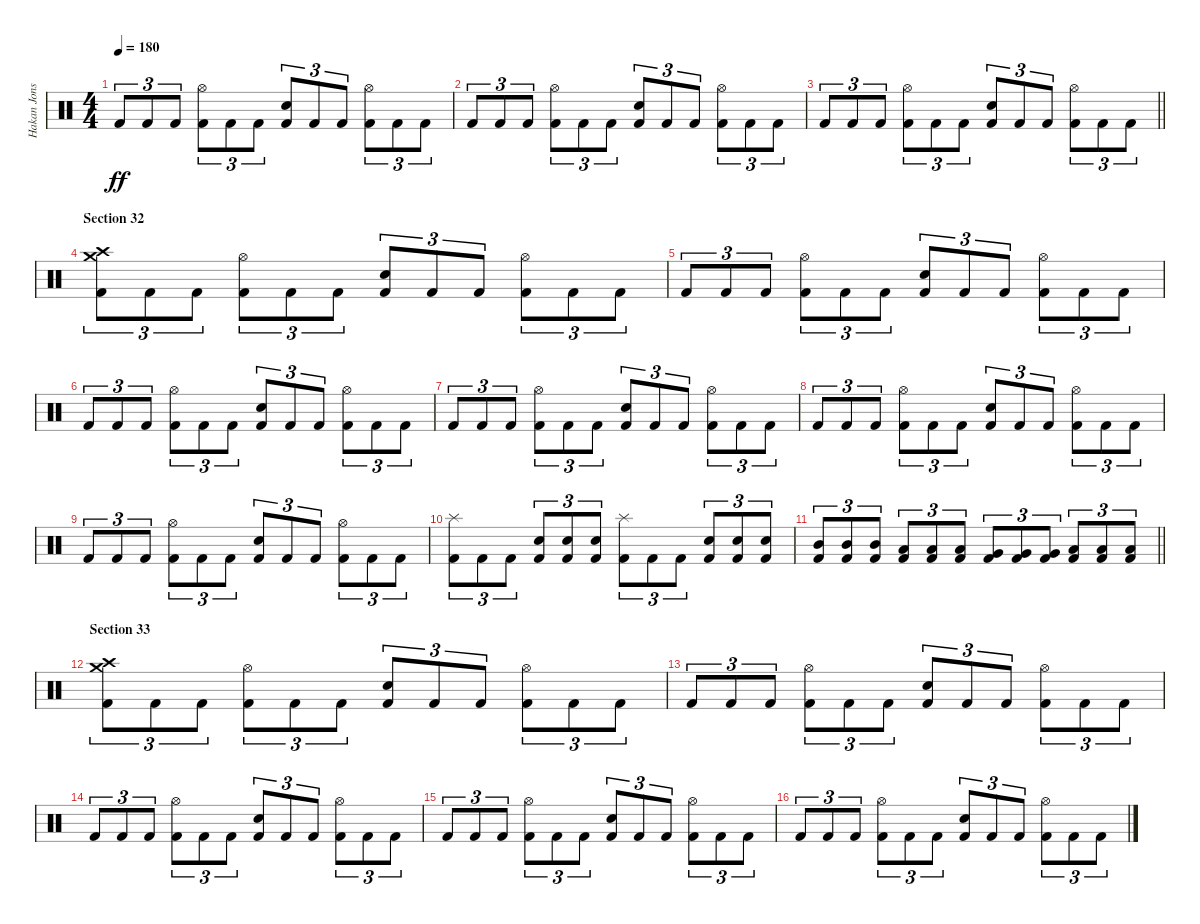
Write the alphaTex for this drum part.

\track ("Hakan Jonsson" "Hakan Jons") {instrument percussion}
\staff {score}
\articulation defaults
\ts (4 4)
\tempo 180
\clef neutral
\ks c "Kick (hit) 2".8{tu (3 2) dy ff} "Kick (hit) 2".8{tu (3 2)} "Kick (hit) 2".8{tu (3 2)}
("Hi-Hat (open)" "Kick (hit) 2").8{tu (3 2)} "Kick (hit) 2".8{tu (3 2)} "Kick (hit) 2".8{tu (3 2)} ("Electric Snare (hit)" "Kick (hit) 2").8{tu (3 2)} "Kick (hit) 2".8{tu (3 2)} "Kick (hit) 2".8{tu (3 2)} ("Hi-Hat (open)" "Kick (hit) 2").8{tu (3 2)} "Kick (hit) 2".8{tu (3 2)} "Kick (hit) 2".8{tu (3 2)} |
"Kick (hit) 2".8{tu (3 2)} "Kick (hit) 2".8{tu (3 2)} "Kick (hit) 2".8{tu (3 2)} ("Hi-Hat (open)" "Kick (hit) 2").8{tu (3 2)} "Kick (hit) 2".8{tu (3 2)} "Kick (hit) 2".8{tu (3 2)} ("Electric Snare (hit)" "Kick (hit) 2").8{tu (3 2)} "Kick (hit) 2".8{tu (3 2)} "Kick (hit) 2".8{tu (3 2)} ("Hi-Hat (open)" "Kick (hit) 2").8{tu (3 2)} "Kick (hit) 2".8{tu (3 2)} "Kick (hit) 2".8{tu (3 2)} |
\barLineRight lightlight "Kick (hit) 2".8{tu (3 2)} "Kick (hit) 2".8{tu (3 2)} "Kick (hit) 2".8{tu (3 2)}
("Hi-Hat (open)" "Kick (hit) 2").8{tu (3 2)} "Kick (hit) 2".8{tu (3 2)} "Kick (hit) 2".8{tu (3 2)} ("Electric Snare (hit)" "Kick (hit) 2").8{tu (3 2)} "Kick (hit) 2".8{tu (3 2)} "Kick (hit) 2".8{tu (3 2)} ("Hi-Hat (open)" "Kick (hit) 2").8{tu (3 2)} "Kick (hit) 2".8{tu (3 2)} "Kick (hit) 2".8{tu (3 2)} |
\section ("" "Section 32")
("Crash high (hit)" "Crash medium (hit)" "Kick (hit) 2").8{tu (3 2)} "Kick (hit) 2".8{tu (3 2)} "Kick (hit) 2".8{tu (3 2)} ("Hi-Hat (open)" "Kick (hit) 2").8{tu (3 2)} "Kick (hit) 2".8{tu (3 2)} "Kick (hit) 2".8{tu (3 2)} ("Electric Snare (hit)" "Kick (hit) 2").8{tu (3 2)} "Kick (hit) 2".8{tu (3 2)} "Kick (hit) 2".8{tu (3 2)} ("Hi-Hat (open)" "Kick (hit) 2").8{tu (3 2)} "Kick (hit) 2".8{tu (3 2)} "Kick (hit) 2".8{tu (3 2)} |
"Kick (hit) 2".8{tu (3 2)} "Kick (hit) 2".8{tu (3 2)} "Kick (hit) 2".8{tu (3 2)} ("Hi-Hat (open)" "Kick (hit) 2").8{tu (3 2)} "Kick (hit) 2".8{tu (3 2)} "Kick (hit) 2".8{tu (3 2)} ("Electric Snare (hit)" "Kick (hit) 2").8{tu (3 2)} "Kick (hit) 2".8{tu (3 2)} "Kick (hit) 2".8{tu (3 2)} ("Hi-Hat (open)" "Kick (hit) 2").8{tu (3 2)} "Kick (hit) 2".8{tu (3 2)} "Kick (hit) 2".8{tu (3 2)} |
"Kick (hit) 2".8{tu (3 2)} "Kick (hit) 2".8{tu (3 2)} "Kick (hit) 2".8{tu (3 2)} ("Hi-Hat (open)" "Kick (hit) 2").8{tu (3 2)} "Kick (hit) 2".8{tu (3 2)} "Kick (hit) 2".8{tu (3 2)} ("Electric Snare (hit)" "Kick (hit) 2").8{tu (3 2)} "Kick (hit) 2".8{tu (3 2)} "Kick (hit) 2".8{tu (3 2)} ("Hi-Hat (open)" "Kick (hit) 2").8{tu (3 2)} "Kick (hit) 2".8{tu (3 2)} "Kick (hit) 2".8{tu (3 2)} |
"Kick (hit) 2".8{tu (3 2)} "Kick (hit) 2".8{tu (3 2)} "Kick (hit) 2".8{tu (3 2)} ("Hi-Hat (open)" "Kick (hit) 2").8{tu (3 2)} "Kick (hit) 2".8{tu (3 2)} "Kick (hit) 2".8{tu (3 2)} ("Electric Snare (hit)" "Kick (hit) 2").8{tu (3 2)} "Kick (hit) 2".8{tu (3 2)} "Kick (hit) 2".8{tu (3 2)} ("Hi-Hat (open)" "Kick (hit) 2").8{tu (3 2)} "Kick (hit) 2".8{tu (3 2)} "Kick (hit) 2".8{tu (3 2)} |
"Kick (hit) 2".8{tu (3 2)} "Kick (hit) 2".8{tu (3 2)} "Kick (hit) 2".8{tu (3 2)} ("Hi-Hat (open)" "Kick (hit) 2").8{tu (3 2)} "Kick (hit) 2".8{tu (3 2)} "Kick (hit) 2".8{tu (3 2)} ("Electric Snare (hit)" "Kick (hit) 2").8{tu (3 2)} "Kick (hit) 2".8{tu (3 2)} "Kick (hit) 2".8{tu (3 2)} ("Hi-Hat (open)" "Kick (hit) 2").8{tu (3 2)} "Kick (hit) 2".8{tu (3 2)} "Kick (hit) 2".8{tu (3 2)} |
"Kick (hit) 2".8{tu (3 2)} "Kick (hit) 2".8{tu (3 2)} "Kick (hit) 2".8{tu (3 2)} ("Hi-Hat (open)" "Kick (hit) 2").8{tu (3 2)} "Kick (hit) 2".8{tu (3 2)} "Kick (hit) 2".8{tu (3 2)} ("Electric Snare (hit)" "Kick (hit) 2").8{tu (3 2)} "Kick (hit) 2".8{tu (3 2)} "Kick (hit) 2".8{tu (3 2)} ("Hi-Hat (open)" "Kick (hit) 2").8{tu (3 2)} "Kick (hit) 2".8{tu (3 2)} "Kick (hit) 2".8{tu (3 2)} |
("Splash (hit)" "Kick (hit) 2").8{tu (3 2)} "Kick (hit) 2".8{tu (3 2)} "Kick (hit) 2".8{tu (3 2)} ("Electric Snare (hit)" "Kick (hit) 2").8{tu (3 2)} ("Electric Snare (hit)" "Kick (hit) 2").8{tu (3 2)} ("Electric Snare (hit)" "Kick (hit) 2").8{tu (3 2)} ("Splash (hit)" "Kick (hit) 2").8{tu (3 2)} "Kick (hit) 2".8{tu (3 2)} "Kick (hit) 2".8{tu (3 2)} ("Electric Snare (hit)" "Kick (hit) 2").8{tu (3 2)} ("Electric Snare (hit)" "Kick (hit) 2").8{tu (3 2)} ("Electric Snare (hit)" "Kick (hit) 2").8{tu (3 2)} |
\barLineRight lightlight
("Mid Tom (hit)" "Kick (hit) 2").8{tu (3 2)} ("Mid Tom (hit)" "Kick (hit) 2").8{tu (3 2)} ("Mid Tom (hit)" "Kick (hit) 2").8{tu (3 2)} ("Low Tom (hit)" "Kick (hit) 2").8{tu (3 2)} ("Low Tom (hit)" "Kick (hit) 2").8{tu (3 2)} ("Low Tom (hit)" "Kick (hit) 2").8{tu (3 2)} ("Very Low Tom (hit)" "Kick (hit) 2").8{tu (3 2)} ("Very Low Tom (hit)" "Kick (hit) 2").8{tu (3 2)} ("Very Low Tom (hit)" "Kick (hit) 2").8{tu (3 2)} ("Low Floor Tom (hit)" "Kick (hit) 2").8{tu (3 2)} ("Low Floor Tom (hit)" "Kick (hit) 2").8{tu (3 2)} ("Low Floor Tom (hit)" "Kick (hit) 2").8{tu (3 2)} |
\section ("" "Section 33")
("Crash high (hit)" "Crash medium (hit)" "Kick (hit) 2").8{tu (3 2)} "Kick (hit) 2".8{tu (3 2)} "Kick (hit) 2".8{tu (3 2)} ("Hi-Hat (open)" "Kick (hit) 2").8{tu (3 2)} "Kick (hit) 2".8{tu (3 2)} "Kick (hit) 2".8{tu (3 2)} ("Electric Snare (hit)" "Kick (hit) 2").8{tu (3 2)} "Kick (hit) 2".8{tu (3 2)} "Kick (hit) 2".8{tu (3 2)} ("Hi-Hat (open)" "Kick (hit) 2").8{tu (3 2)} "Kick (hit) 2".8{tu (3 2)} "Kick (hit) 2".8{tu (3 2)} |
"Kick (hit) 2".8{tu (3 2)} "Kick (hit) 2".8{tu (3 2)} "Kick (hit) 2".8{tu (3 2)} ("Hi-Hat (open)" "Kick (hit) 2").8{tu (3 2)} "Kick (hit) 2".8{tu (3 2)} "Kick (hit) 2".8{tu (3 2)} ("Electric Snare (hit)" "Kick (hit) 2").8{tu (3 2)} "Kick (hit) 2".8{tu (3 2)} "Kick (hit) 2".8{tu (3 2)} ("Hi-Hat (open)" "Kick (hit) 2").8{tu (3 2)} "Kick (hit) 2".8{tu (3 2)} "Kick (hit) 2".8{tu (3 2)} |
"Kick (hit) 2".8{tu (3 2)} "Kick (hit) 2".8{tu (3 2)} "Kick (hit) 2".8{tu (3 2)} ("Hi-Hat (open)" "Kick (hit) 2").8{tu (3 2)} "Kick (hit) 2".8{tu (3 2)} "Kick (hit) 2".8{tu (3 2)} ("Electric Snare (hit)" "Kick (hit) 2").8{tu (3 2)} "Kick (hit) 2".8{tu (3 2)} "Kick (hit) 2".8{tu (3 2)} ("Hi-Hat (open)" "Kick (hit) 2").8{tu (3 2)} "Kick (hit) 2".8{tu (3 2)} "Kick (hit) 2".8{tu (3 2)} |
"Kick (hit) 2".8{tu (3 2)} "Kick (hit) 2".8{tu (3 2)} "Kick (hit) 2".8{tu (3 2)} ("Hi-Hat (open)" "Kick (hit) 2").8{tu (3 2)} "Kick (hit) 2".8{tu (3 2)} "Kick (hit) 2".8{tu (3 2)} ("Electric Snare (hit)" "Kick (hit) 2").8{tu (3 2)} "Kick (hit) 2".8{tu (3 2)} "Kick (hit) 2".8{tu (3 2)} ("Hi-Hat (open)" "Kick (hit) 2").8{tu (3 2)} "Kick (hit) 2".8{tu (3 2)} "Kick (hit) 2".8{tu (3 2)} |
"Kick (hit) 2".8{tu (3 2)} "Kick (hit) 2".8{tu (3 2)} "Kick (hit) 2".8{tu (3 2)} ("Hi-Hat (open)" "Kick (hit) 2").8{tu (3 2)} "Kick (hit) 2".8{tu (3 2)} "Kick (hit) 2".8{tu (3 2)} ("Electric Snare (hit)" "Kick (hit) 2").8{tu (3 2)} "Kick (hit) 2".8{tu (3 2)} "Kick (hit) 2".8{tu (3 2)} ("Hi-Hat (open)" "Kick (hit) 2").8{tu (3 2)} "Kick (hit) 2".8{tu (3 2)} "Kick (hit) 2".8{tu (3 2)}
